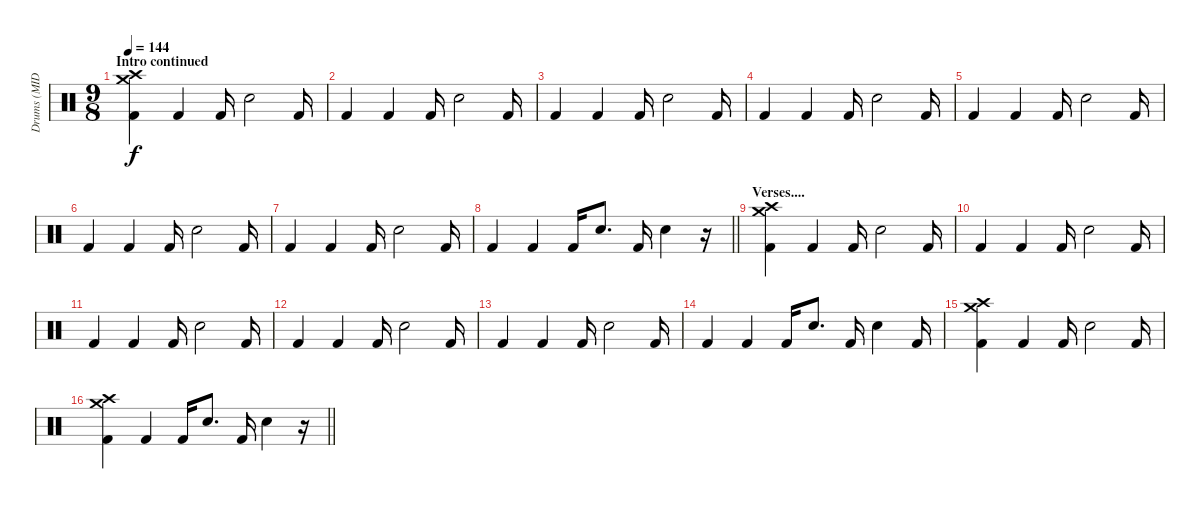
\track ("Drums (MIDI!)" "Drums (MID") {instrument percussion}
\staff {score}
\articulation defaults
\ts (9 8)
\section ("" "Intro continued")
\tempo 144
\clef neutral
\ks c
("Crash medium (hit)" "Crash high (hit)" "Kick (hit) 2").4{dy f} "Kick (hit) 2".4 "Kick (hit) 2".16 "Electric Snare (hit)".2 "Kick (hit) 2".16 |
"Kick (hit) 2".4 "Kick (hit) 2".4 "Kick (hit) 2".16 "Electric Snare (hit)".2 "Kick (hit) 2".16 |
"Kick (hit) 2".4 "Kick (hit) 2".4 "Kick (hit) 2".16 "Electric Snare (hit)".2 "Kick (hit) 2".16 |
"Kick (hit) 2".4 "Kick (hit) 2".4 "Kick (hit) 2".16 "Electric Snare (hit)".2 "Kick (hit) 2".16 |
"Kick (hit) 2".4 "Kick (hit) 2".4 "Kick (hit) 2".16 "Electric Snare (hit)".2 "Kick (hit) 2".16 |
"Kick (hit) 2".4 "Kick (hit) 2".4 "Kick (hit) 2".16 "Electric Snare (hit)".2 "Kick (hit) 2".16 |
"Kick (hit) 2".4 "Kick (hit) 2".4 "Kick (hit) 2".16 "Electric Snare (hit)".2 "Kick (hit) 2".16 |
\barLineRight lightlight "Kick (hit) 2".4 "Kick (hit) 2".4 "Kick (hit) 2".16 "Electric Snare (hit)".8{d} "Kick (hit) 2".16 "Electric Snare (hit)".4
r.16 |
\section ("" "Verses....")
("Crash medium (hit)" "Crash high (hit)" "Kick (hit) 2").4 "Kick (hit) 2".4 "Kick (hit) 2".16 "Electric Snare (hit)".2 "Kick (hit) 2".16 |
"Kick (hit) 2".4 "Kick (hit) 2".4 "Kick (hit) 2".16 "Electric Snare (hit)".2 "Kick (hit) 2".16 |
"Kick (hit) 2".4 "Kick (hit) 2".4 "Kick (hit) 2".16 "Electric Snare (hit)".2 "Kick (hit) 2".16 |
"Kick (hit) 2".4 "Kick (hit) 2".4 "Kick (hit) 2".16 "Electric Snare (hit)".2 "Kick (hit) 2".16 |
"Kick (hit) 2".4 "Kick (hit) 2".4 "Kick (hit) 2".16 "Electric Snare (hit)".2 "Kick (hit) 2".16 |
"Kick (hit) 2".4 "Kick (hit) 2".4 "Kick (hit) 2".16 "Electric Snare (hit)".8{d} "Kick (hit) 2".16 "Electric Snare (hit)".4 "Kick (hit) 2".16 |
("Crash medium (hit)" "Crash high (hit)" "Kick (hit) 2").4 "Kick (hit) 2".4 "Kick (hit) 2".16 "Electric Snare (hit)".2 "Kick (hit) 2".16 |
\barLineRight lightlight
("Crash medium (hit)" "Crash high (hit)" "Kick (hit) 2").4 "Kick (hit) 2".4 "Kick (hit) 2".16 "Electric Snare (hit)".8{d} "Kick (hit) 2".16 "Electric Snare (hit)".4 r.16
